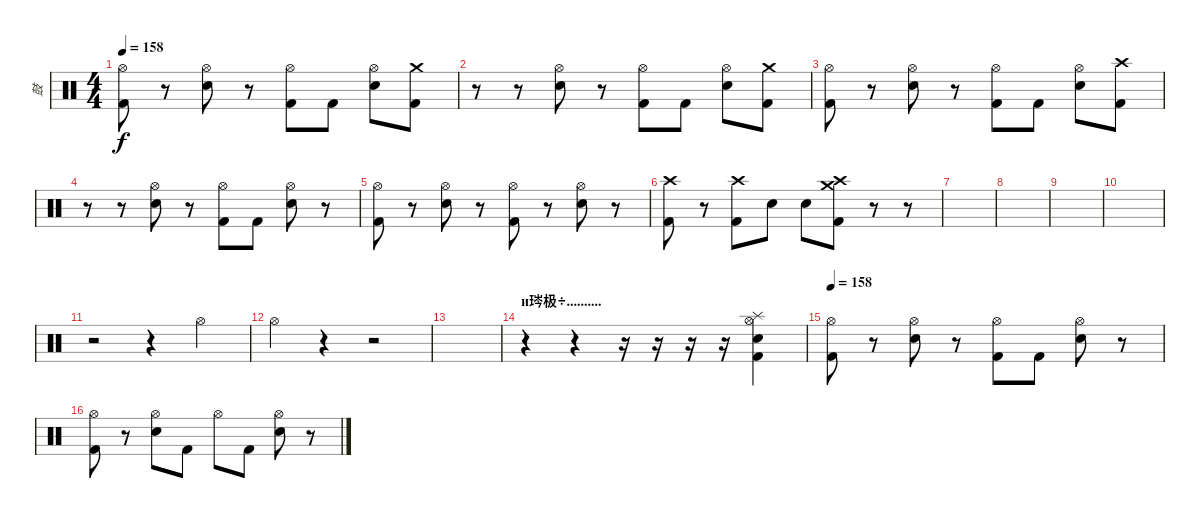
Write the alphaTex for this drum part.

\track ("鼓" "鼓") {instrument percussion}
\staff {score}
\articulation defaults
\ts (4 4)
\tempo 158
\clef neutral
\ks c
("Hi-Hat (open)" "Kick (hit) 2").8{dy f} r.8 ("Hi-Hat (open)" "Electric Snare (hit)").8 r.8 ("Hi-Hat (open)" "Kick (hit) 2").8 "Kick (hit) 2".8 ("Hi-Hat (open)" "Electric Snare (hit)").8 ("Crash medium (hit)" "Kick (hit) 2").8 |
r.8 r.8 ("Hi-Hat (open)" "Electric Snare (hit)").8 r.8 ("Hi-Hat (open)" "Kick (hit) 2").8 "Kick (hit) 2".8 ("Hi-Hat (open)" "Electric Snare (hit)").8 ("Crash medium (hit)" "Kick (hit) 2").8 |
("Hi-Hat (open)" "Kick (hit) 2").8 r.8 ("Hi-Hat (open)" "Electric Snare (hit)").8 r.8 ("Hi-Hat (open)" "Kick (hit) 2").8 "Kick (hit) 2".8 ("Hi-Hat (open)" "Electric Snare (hit)").8 ("Crash high (hit)" "Kick (hit) 2").8 |
r.8 r.8 ("Hi-Hat (open)" "Electric Snare (hit)").8 r.8 ("Hi-Hat (open)" "Kick (hit) 2").8 "Kick (hit) 2".8 ("Hi-Hat (open)" "Electric Snare (hit)").8 r.8 |
("Hi-Hat (open)" "Kick (hit) 2").8 r.8 ("Hi-Hat (open)" "Electric Snare (hit)").8 r.8 ("Hi-Hat (open)" "Kick (hit) 2").8 r.8 ("Hi-Hat (open)" "Electric Snare (hit)").8 r.8 |
("Crash high (hit)" "Kick (hit) 2").8 r.8 ("Crash high (hit)" "Kick (hit) 2").8 "Electric Snare (hit)".8 "Electric Snare (hit)".8 ("Crash high (hit)" "Crash medium (hit)" "Kick (hit) 2").8 r.8 r.8 |
|
|
|
|
r.2 r.4 "Hi-Hat (open)".4 |
"Hi-Hat (open)".4 r.4 r.2 |
|
\section ("" "и琌极..........")
r.4 r.4 r.16 r.16 r.16 r.16 ("Hi-Hat (open)" "Splash (hit)" "Snare (hit) 2" "Kick (hit) 2").4 |
\tempo 158
("Hi-Hat (open)" "Kick (hit) 2").8 r.8 ("Hi-Hat (open)" "Electric Snare (hit)").8 r.8 ("Hi-Hat (open)" "Kick (hit) 2").8 "Kick (hit) 2".8 ("Hi-Hat (open)" "Electric Snare (hit)").8 r.8 |
("Hi-Hat (open)" "Kick (hit) 2").8 r.8 ("Hi-Hat (open)" "Electric Snare (hit)").8 "Kick (hit) 2".8 "Hi-Hat (open)".8 "Kick (hit) 2".8 ("Hi-Hat (open)" "Electric Snare (hit)").8 r.8
